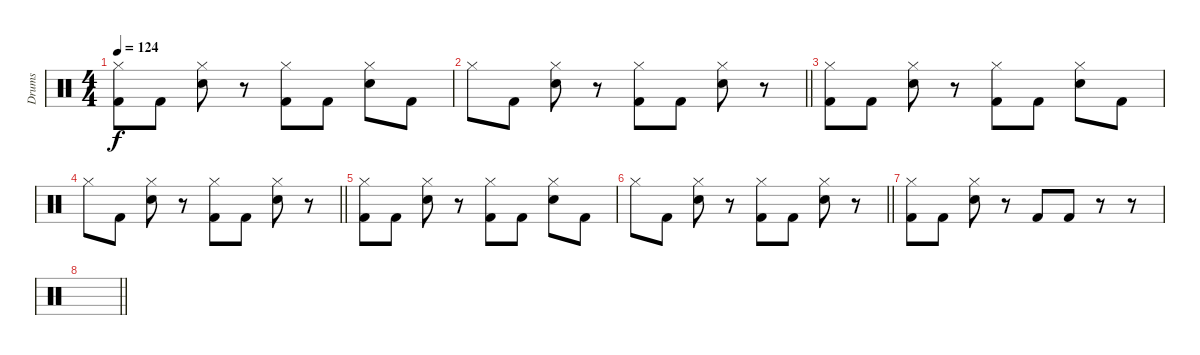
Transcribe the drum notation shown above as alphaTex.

\track ("Drums" "Drums") {instrument percussion}
\staff {score}
\articulation defaults
\ts (4 4)
\tempo 124
\clef neutral
\ks c
("Hi-Hat (closed)" "Kick (hit) 2").8{dy f} "Kick (hit) 2".8 ("Hi-Hat (closed)" "Snare (hit) 2").8 r.8 ("Hi-Hat (closed)" "Kick (hit) 2").8 "Kick (hit) 2".8 ("Hi-Hat (closed)" "Snare (hit) 2").8 "Kick (hit) 2".8 |
\barLineRight lightlight "Hi-Hat (closed)".8 "Kick (hit) 2".8
("Hi-Hat (closed)" "Snare (hit) 2").8 r.8 ("Hi-Hat (closed)" "Kick (hit) 2").8 "Kick (hit) 2".8 ("Hi-Hat (closed)" "Snare (hit) 2").8 r.8 |
("Hi-Hat (closed)" "Kick (hit) 2").8 "Kick (hit) 2".8 ("Hi-Hat (closed)" "Snare (hit) 2").8 r.8 ("Hi-Hat (closed)" "Kick (hit) 2").8 "Kick (hit) 2".8 ("Hi-Hat (closed)" "Snare (hit) 2").8 "Kick (hit) 2".8 |
\barLineRight lightlight "Hi-Hat (closed)".8 "Kick (hit) 2".8
("Hi-Hat (closed)" "Snare (hit) 2").8 r.8 ("Hi-Hat (closed)" "Kick (hit) 2").8 "Kick (hit) 2".8 ("Hi-Hat (closed)" "Snare (hit) 2").8 r.8 |
("Hi-Hat (closed)" "Kick (hit) 2").8 "Kick (hit) 2".8 ("Hi-Hat (closed)" "Snare (hit) 2").8 r.8 ("Hi-Hat (closed)" "Kick (hit) 2").8 "Kick (hit) 2".8 ("Hi-Hat (closed)" "Snare (hit) 2").8 "Kick (hit) 2".8 |
\barLineRight lightlight "Hi-Hat (closed)".8 "Kick (hit) 2".8
("Hi-Hat (closed)" "Snare (hit) 2").8 r.8 ("Hi-Hat (closed)" "Kick (hit) 2").8 "Kick (hit) 2".8 ("Hi-Hat (closed)" "Snare (hit) 2").8 r.8 |
("Hi-Hat (closed)" "Kick (hit) 2").8 "Kick (hit) 2".8 ("Hi-Hat (closed)" "Snare (hit) 2").8 r.8 "Kick (hit) 2".8 "Kick (hit) 2".8 r.8 r.8 |
\barLineRight lightlight
